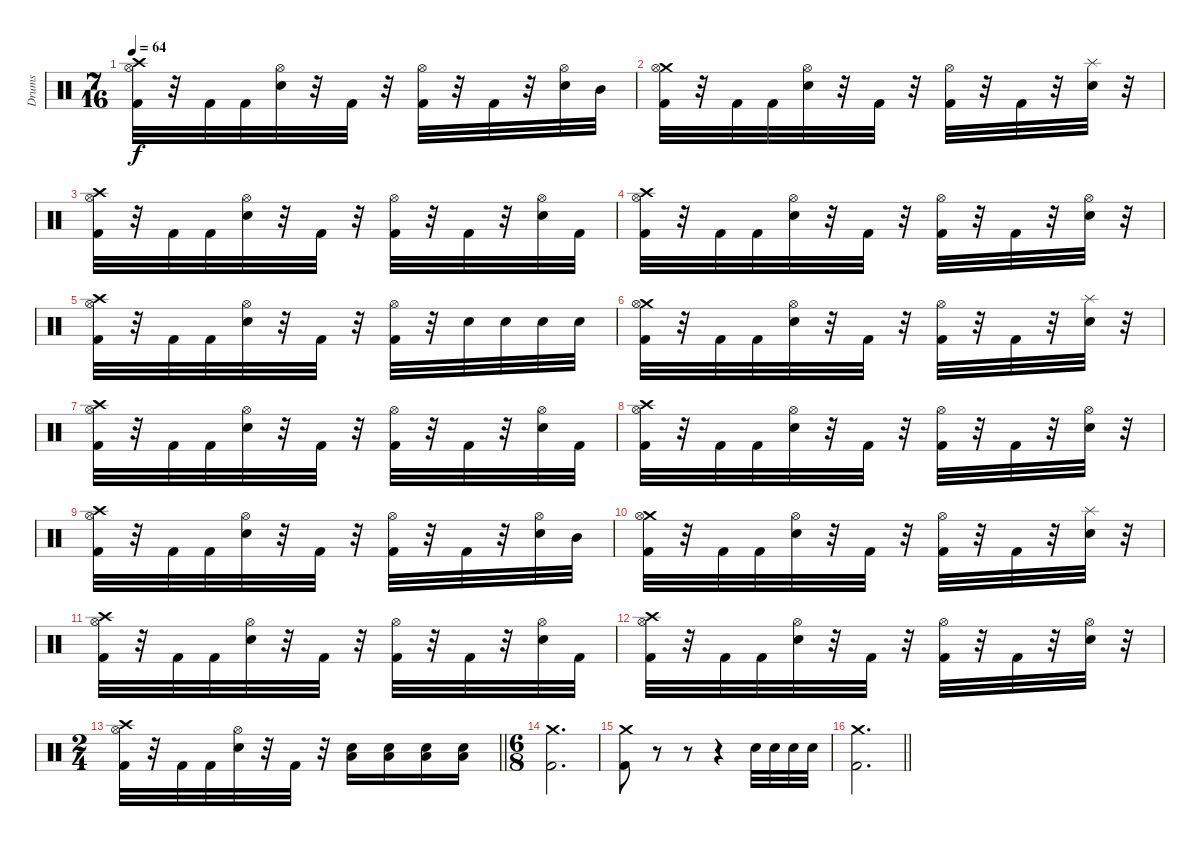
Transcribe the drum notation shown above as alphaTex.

\track ("Drums" "Drums") {instrument percussion}
\staff {score}
\articulation defaults
\ts (7 16)
\tempo 64
\clef neutral
\ks c
("Crash high (hit)" "Hi-Hat (open)" "Kick (hit) 2").32{dy f} r.32 "Kick (hit) 2".32 "Kick (hit) 2".32 ("Hi-Hat (open)" "Electric Snare (hit)").32 r.32 "Kick (hit) 2".32 r.32 ("Hi-Hat (open)" "Kick (hit) 2").32 r.32 "Kick (hit) 2".32 r.32 ("Hi-Hat (open)" "Electric Snare (hit)").32 "Mid Tom (hit)".32 |
("Crash medium (hit)" "Hi-Hat (open)" "Kick (hit) 2").32 r.32 "Kick (hit) 2".32 "Kick (hit) 2".32 ("Hi-Hat (open)" "Electric Snare (hit)").32 r.32 "Kick (hit) 2".32 r.32 ("Hi-Hat (open)" "Kick (hit) 2").32 r.32 "Kick (hit) 2".32 r.32 ("Splash (hit)" "Electric Snare (hit)").32 r.32 |
("Crash high (hit)" "Hi-Hat (open)" "Kick (hit) 2").32 r.32 "Kick (hit) 2".32 "Kick (hit) 2".32 ("Hi-Hat (open)" "Electric Snare (hit)").32 r.32 "Kick (hit) 2".32 r.32 ("Hi-Hat (open)" "Kick (hit) 2").32 r.32 "Kick (hit) 2".32 r.32 ("Hi-Hat (open)" "Electric Snare (hit)").32 "Kick (hit) 2".32 |
("Crash high (hit)" "Hi-Hat (open)" "Kick (hit) 2").32 r.32 "Kick (hit) 2".32 "Kick (hit) 2".32 ("Hi-Hat (open)" "Electric Snare (hit)").32 r.32 "Kick (hit) 2".32 r.32 ("Hi-Hat (open)" "Kick (hit) 2").32 r.32 "Kick (hit) 2".32 r.32 ("Hi-Hat (open)" "Electric Snare (hit)").32 r.32 |
("Crash high (hit)" "Hi-Hat (open)" "Kick (hit) 2").32 r.32 "Kick (hit) 2".32 "Kick (hit) 2".32 ("Hi-Hat (open)" "Electric Snare (hit)").32 r.32 "Kick (hit) 2".32 r.32 ("Hi-Hat (open)" "Kick (hit) 2").32 r.32 "Electric Snare (hit)".32 "Electric Snare (hit)".32 "Electric Snare (hit)".32 "Electric Snare (hit)".32 |
("Crash medium (hit)" "Hi-Hat (open)" "Kick (hit) 2").32 r.32 "Kick (hit) 2".32 "Kick (hit) 2".32 ("Hi-Hat (open)" "Electric Snare (hit)").32 r.32 "Kick (hit) 2".32 r.32 ("Hi-Hat (open)" "Kick (hit) 2").32 r.32 "Kick (hit) 2".32 r.32 ("Splash (hit)" "Electric Snare (hit)").32 r.32 |
("Crash high (hit)" "Hi-Hat (open)" "Kick (hit) 2").32 r.32 "Kick (hit) 2".32 "Kick (hit) 2".32 ("Hi-Hat (open)" "Electric Snare (hit)").32 r.32 "Kick (hit) 2".32 r.32 ("Hi-Hat (open)" "Kick (hit) 2").32 r.32 "Kick (hit) 2".32 r.32 ("Hi-Hat (open)" "Electric Snare (hit)").32 "Kick (hit) 2".32 |
("Crash high (hit)" "Hi-Hat (open)" "Kick (hit) 2").32 r.32 "Kick (hit) 2".32 "Kick (hit) 2".32 ("Hi-Hat (open)" "Electric Snare (hit)").32 r.32 "Kick (hit) 2".32 r.32 ("Hi-Hat (open)" "Kick (hit) 2").32 r.32 "Kick (hit) 2".32 r.32 ("Hi-Hat (open)" "Electric Snare (hit)").32 r.32 |
("Crash high (hit)" "Hi-Hat (open)" "Kick (hit) 2").32 r.32 "Kick (hit) 2".32 "Kick (hit) 2".32 ("Hi-Hat (open)" "Electric Snare (hit)").32 r.32 "Kick (hit) 2".32 r.32 ("Hi-Hat (open)" "Kick (hit) 2").32 r.32 "Kick (hit) 2".32 r.32 ("Hi-Hat (open)" "Electric Snare (hit)").32 "Mid Tom (hit)".32 |
("Crash medium (hit)" "Hi-Hat (open)" "Kick (hit) 2").32 r.32 "Kick (hit) 2".32 "Kick (hit) 2".32 ("Hi-Hat (open)" "Electric Snare (hit)").32 r.32 "Kick (hit) 2".32 r.32 ("Hi-Hat (open)" "Kick (hit) 2").32 r.32 "Kick (hit) 2".32 r.32 ("Splash (hit)" "Electric Snare (hit)").32 r.32 |
("Crash high (hit)" "Hi-Hat (open)" "Kick (hit) 2").32 r.32 "Kick (hit) 2".32 "Kick (hit) 2".32 ("Hi-Hat (open)" "Electric Snare (hit)").32 r.32 "Kick (hit) 2".32 r.32 ("Hi-Hat (open)" "Kick (hit) 2").32 r.32 "Kick (hit) 2".32 r.32 ("Hi-Hat (open)" "Electric Snare (hit)").32 "Kick (hit) 2".32 |
("Crash high (hit)" "Hi-Hat (open)" "Kick (hit) 2").32 r.32 "Kick (hit) 2".32 "Kick (hit) 2".32 ("Hi-Hat (open)" "Electric Snare (hit)").32 r.32 "Kick (hit) 2".32 r.32 ("Hi-Hat (open)" "Kick (hit) 2").32 r.32 "Kick (hit) 2".32 r.32 ("Hi-Hat (open)" "Electric Snare (hit)").32 r.32 |
\ts (2 4)
\barLineRight lightlight
("Crash high (hit)" "Hi-Hat (open)" "Kick (hit) 2").32 r.32 "Kick (hit) 2".32 "Kick (hit) 2".32 ("Hi-Hat (open)" "Electric Snare (hit)").32 r.32 "Kick (hit) 2".32 r.32 ("Electric Snare (hit)" "Low Tom (hit)").16 ("Electric Snare (hit)" "Low Tom (hit)").16 ("Electric Snare (hit)" "Low Tom (hit)").16 ("Electric Snare (hit)" "Low Tom (hit)").16 |
\ts (6 8)
\section ("" "")
("Crash medium (hit)" "Kick (hit) 2").2{d} |
("Crash medium (hit)" "Kick (hit) 2").8 r.8 r.8 r.4 "Electric Snare (hit)".32 "Electric Snare (hit)".32 "Electric Snare (hit)".32 "Electric Snare (hit)".32 |
\barLineRight lightlight
("Crash medium (hit)" "Kick (hit) 2").2{d}
